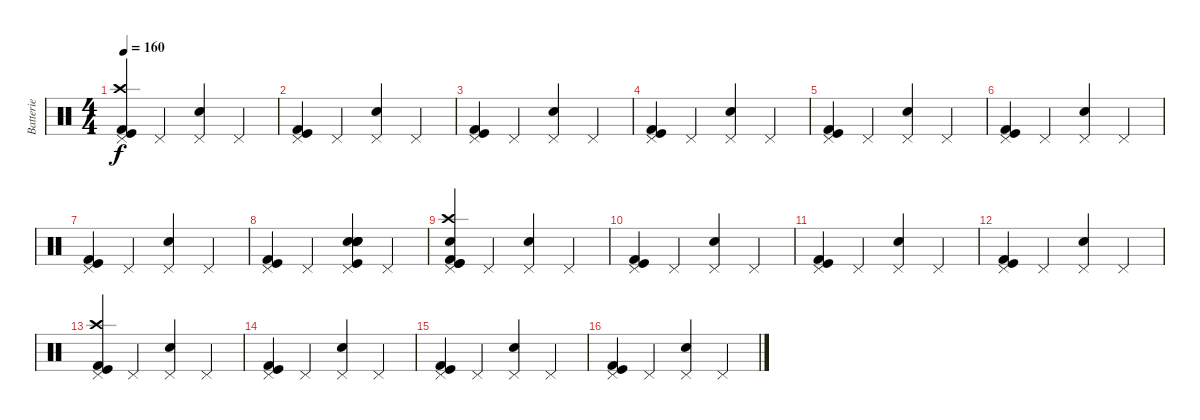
\track ("Batterie" "Batterie") {instrument percussion}
\staff {score}
\articulation defaults
\ts (4 4)
\tempo 160
\clef neutral
\ks c
("Pedal Hi-Hat (hit)" "Crash high (hit)" "Kick (hit) 2" "Kick (hit)").4{dy f} "Pedal Hi-Hat (hit)".4 ("Pedal Hi-Hat (hit)" "Electric Snare (hit)").4 "Pedal Hi-Hat (hit)".4 |
("Pedal Hi-Hat (hit)" "Kick (hit) 2" "Kick (hit)").4 "Pedal Hi-Hat (hit)".4 ("Pedal Hi-Hat (hit)" "Electric Snare (hit)").4 "Pedal Hi-Hat (hit)".4 |
("Pedal Hi-Hat (hit)" "Kick (hit) 2" "Kick (hit)").4 "Pedal Hi-Hat (hit)".4 ("Pedal Hi-Hat (hit)" "Electric Snare (hit)").4 "Pedal Hi-Hat (hit)".4 |
("Pedal Hi-Hat (hit)" "Kick (hit) 2" "Kick (hit)").4 "Pedal Hi-Hat (hit)".4 ("Pedal Hi-Hat (hit)" "Electric Snare (hit)").4 "Pedal Hi-Hat (hit)".4 |
("Pedal Hi-Hat (hit)" "Kick (hit) 2" "Kick (hit)").4 "Pedal Hi-Hat (hit)".4 ("Pedal Hi-Hat (hit)" "Electric Snare (hit)").4 "Pedal Hi-Hat (hit)".4 |
("Pedal Hi-Hat (hit)" "Kick (hit) 2" "Kick (hit)").4 "Pedal Hi-Hat (hit)".4 ("Pedal Hi-Hat (hit)" "Electric Snare (hit)").4 "Pedal Hi-Hat (hit)".4 |
("Pedal Hi-Hat (hit)" "Kick (hit) 2" "Kick (hit)").4 "Pedal Hi-Hat (hit)".4 ("Pedal Hi-Hat (hit)" "Electric Snare (hit)").4 "Pedal Hi-Hat (hit)".4 |
("Pedal Hi-Hat (hit)" "Kick (hit) 2" "Kick (hit)").4 "Pedal Hi-Hat (hit)".4 ("Kick (hit)" "Pedal Hi-Hat (hit)" "Electric Snare (hit)" "Electric Snare (hit)" "Snare (hit) 2" "Snare (hit) 2").4 "Pedal Hi-Hat (hit)".4 |
("Electric Snare (hit)" "Pedal Hi-Hat (hit)" "Crash high (hit)" "Kick (hit) 2" "Kick (hit)" "Kick (hit)").4 "Pedal Hi-Hat (hit)".4 ("Pedal Hi-Hat (hit)" "Electric Snare (hit)").4 "Pedal Hi-Hat (hit)".4 |
("Pedal Hi-Hat (hit)" "Kick (hit) 2" "Kick (hit)").4 "Pedal Hi-Hat (hit)".4 ("Pedal Hi-Hat (hit)" "Electric Snare (hit)").4 "Pedal Hi-Hat (hit)".4 |
("Pedal Hi-Hat (hit)" "Kick (hit) 2" "Kick (hit)").4 "Pedal Hi-Hat (hit)".4 ("Pedal Hi-Hat (hit)" "Electric Snare (hit)").4 "Pedal Hi-Hat (hit)".4 |
("Pedal Hi-Hat (hit)" "Kick (hit) 2" "Kick (hit)").4 "Pedal Hi-Hat (hit)".4 ("Pedal Hi-Hat (hit)" "Electric Snare (hit)").4 "Pedal Hi-Hat (hit)".4 |
("Pedal Hi-Hat (hit)" "Crash high (hit)" "Kick (hit) 2" "Kick (hit)").4 "Pedal Hi-Hat (hit)".4 ("Pedal Hi-Hat (hit)" "Electric Snare (hit)").4 "Pedal Hi-Hat (hit)".4 |
("Pedal Hi-Hat (hit)" "Kick (hit) 2" "Kick (hit)").4 "Pedal Hi-Hat (hit)".4 ("Pedal Hi-Hat (hit)" "Electric Snare (hit)").4 "Pedal Hi-Hat (hit)".4 |
("Pedal Hi-Hat (hit)" "Kick (hit) 2" "Kick (hit)").4 "Pedal Hi-Hat (hit)".4 ("Pedal Hi-Hat (hit)" "Electric Snare (hit)").4 "Pedal Hi-Hat (hit)".4 |
("Pedal Hi-Hat (hit)" "Kick (hit) 2" "Kick (hit)").4 "Pedal Hi-Hat (hit)".4 ("Pedal Hi-Hat (hit)" "Electric Snare (hit)").4 "Pedal Hi-Hat (hit)".4
